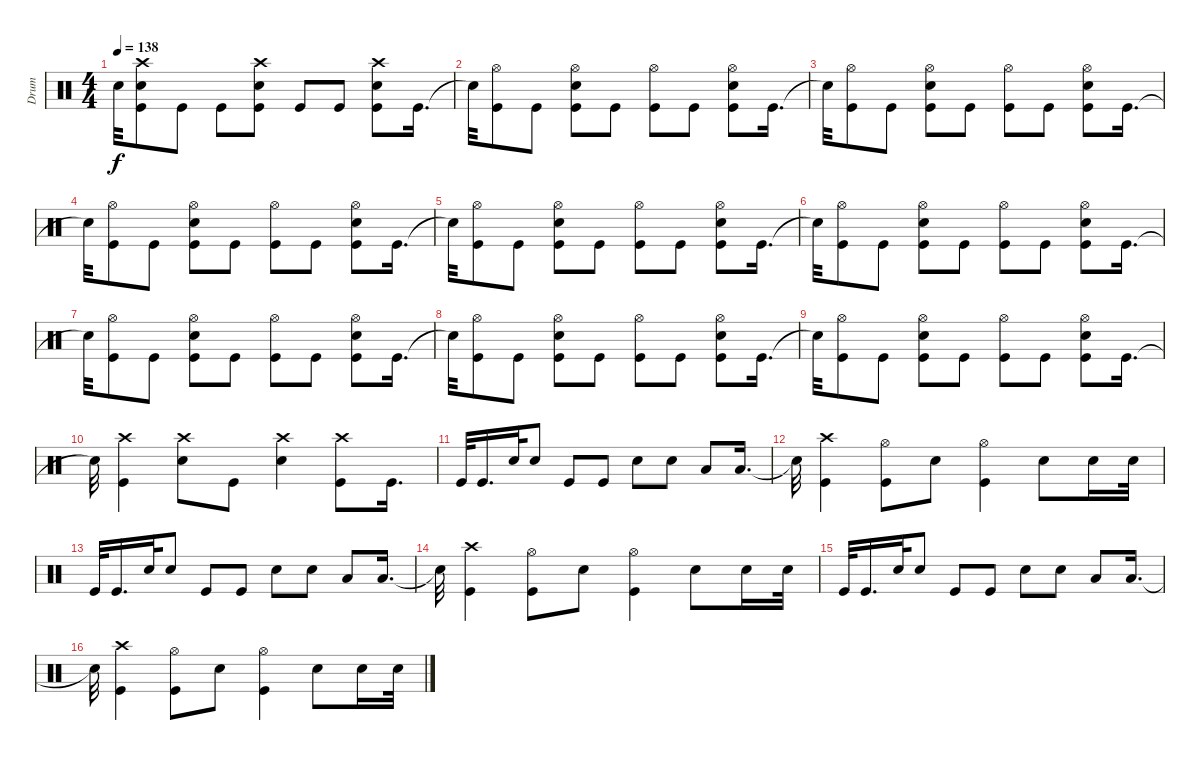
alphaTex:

\track ("Drum" "Drum") {instrument percussion}
\staff {score}
\articulation defaults
\ts (4 4)
\tempo 138
\clef neutral
\ks c "Snare (hit)"{t}.32{dy f}
("Crash high (hit)" "Electric Snare (hit)" "Kick (hit)").8 "Kick (hit)".8 "Kick (hit)".8 ("Crash high (hit)" "Electric Snare (hit)" "Kick (hit)").8 "Kick (hit)".8 "Kick (hit)".8 ("Crash high (hit)" "Electric Snare (hit)" "Kick (hit)").8 "Kick (hit)".16{d} |
"Snare (hit)"{t}.32 ("Hi-Hat (open)" "Kick (hit)").8 "Kick (hit)".8 ("Hi-Hat (open)" "Electric Snare (hit)" "Kick (hit)").8 "Kick (hit)".8 ("Hi-Hat (open)" "Kick (hit)").8 "Kick (hit)".8 ("Electric Snare (hit)" "Hi-Hat (open)" "Kick (hit)").8 "Kick (hit)".16{d} |
"Snare (hit)"{t}.32 ("Hi-Hat (open)" "Kick (hit)").8 "Kick (hit)".8 ("Hi-Hat (open)" "Electric Snare (hit)" "Kick (hit)").8 "Kick (hit)".8 ("Hi-Hat (open)" "Kick (hit)").8 "Kick (hit)".8 ("Electric Snare (hit)" "Hi-Hat (open)" "Kick (hit)").8 "Kick (hit)".16{d} |
"Snare (hit)"{t}.32 ("Hi-Hat (open)" "Kick (hit)").8 "Kick (hit)".8 ("Hi-Hat (open)" "Electric Snare (hit)" "Kick (hit)").8 "Kick (hit)".8 ("Hi-Hat (open)" "Kick (hit)").8 "Kick (hit)".8 ("Electric Snare (hit)" "Hi-Hat (open)" "Kick (hit)").8 "Kick (hit)".16{d} |
"Snare (hit)"{t}.32 ("Hi-Hat (open)" "Kick (hit)").8 "Kick (hit)".8 ("Hi-Hat (open)" "Electric Snare (hit)" "Kick (hit)").8 "Kick (hit)".8 ("Hi-Hat (open)" "Kick (hit)").8 "Kick (hit)".8 ("Electric Snare (hit)" "Hi-Hat (open)" "Kick (hit)").8 "Kick (hit)".16{d} |
"Snare (hit)"{t}.32 ("Hi-Hat (open)" "Kick (hit)").8 "Kick (hit)".8 ("Hi-Hat (open)" "Electric Snare (hit)" "Kick (hit)").8 "Kick (hit)".8 ("Hi-Hat (open)" "Kick (hit)").8 "Kick (hit)".8 ("Electric Snare (hit)" "Hi-Hat (open)" "Kick (hit)").8 "Kick (hit)".16{d} |
"Snare (hit)"{t}.32 ("Hi-Hat (open)" "Kick (hit)").8 "Kick (hit)".8 ("Hi-Hat (open)" "Electric Snare (hit)" "Kick (hit)").8 "Kick (hit)".8 ("Hi-Hat (open)" "Kick (hit)").8 "Kick (hit)".8 ("Electric Snare (hit)" "Hi-Hat (open)" "Kick (hit)").8 "Kick (hit)".16{d} |
"Snare (hit)"{t}.32 ("Hi-Hat (open)" "Kick (hit)").8 "Kick (hit)".8 ("Hi-Hat (open)" "Electric Snare (hit)" "Kick (hit)").8 "Kick (hit)".8 ("Hi-Hat (open)" "Kick (hit)").8 "Kick (hit)".8 ("Electric Snare (hit)" "Hi-Hat (open)" "Kick (hit)").8 "Kick (hit)".16{d} |
"Snare (hit)"{t}.32 ("Hi-Hat (open)" "Kick (hit)").8 "Kick (hit)".8 ("Hi-Hat (open)" "Electric Snare (hit)" "Kick (hit)").8 "Kick (hit)".8 ("Hi-Hat (open)" "Kick (hit)").8 "Kick (hit)".8 ("Electric Snare (hit)" "Hi-Hat (open)" "Kick (hit)").8 "Kick (hit)".16{d} |
"Snare (hit)"{t}.32 ("Crash high (hit)" "Kick (hit)").4 ("Crash high (hit)" "Electric Snare (hit)").8 "Kick (hit)".8 ("Crash high (hit)" "Electric Snare (hit)").4 ("Crash high (hit)" "Kick (hit)").8 "Kick (hit)".16{d} |
"Kick (hit)".32 "Kick (hit)".16{d} "Electric Snare (hit)".32 "Electric Snare (hit)".8 "Kick (hit)".8 "Kick (hit)".8 "Electric Snare (hit)".8 "Electric Snare (hit)".8 "Low Tom (hit)".8 "Low Tom (hit)".16{d} |
"Snare (hit)"{t}.32 ("Crash high (hit)" "Kick (hit)").4 ("Hi-Hat (open)" "Kick (hit)").8 "Electric Snare (hit)".8 ("Hi-Hat (open)" "Kick (hit)").4 "Electric Snare (hit)".8 "Electric Snare (hit)".16 "Electric Snare (hit)".32 |
"Kick (hit)".32 "Kick (hit)".16{d} "Electric Snare (hit)".32 "Electric Snare (hit)".8 "Kick (hit)".8 "Kick (hit)".8 "Electric Snare (hit)".8 "Electric Snare (hit)".8 "Low Tom (hit)".8 "Low Tom (hit)".16{d} |
"Snare (hit)"{t}.32 ("Crash high (hit)" "Kick (hit)").4 ("Hi-Hat (open)" "Kick (hit)").8 "Electric Snare (hit)".8 ("Hi-Hat (open)" "Kick (hit)").4 "Electric Snare (hit)".8 "Electric Snare (hit)".16 "Electric Snare (hit)".32 |
"Kick (hit)".32 "Kick (hit)".16{d} "Electric Snare (hit)".32 "Electric Snare (hit)".8 "Kick (hit)".8 "Kick (hit)".8 "Electric Snare (hit)".8 "Electric Snare (hit)".8 "Low Tom (hit)".8 "Low Tom (hit)".16{d} |
"Snare (hit)"{t}.32 ("Crash high (hit)" "Kick (hit)").4 ("Hi-Hat (open)" "Kick (hit)").8 "Electric Snare (hit)".8 ("Hi-Hat (open)" "Kick (hit)").4 "Electric Snare (hit)".8 "Electric Snare (hit)".16 "Electric Snare (hit)".32
